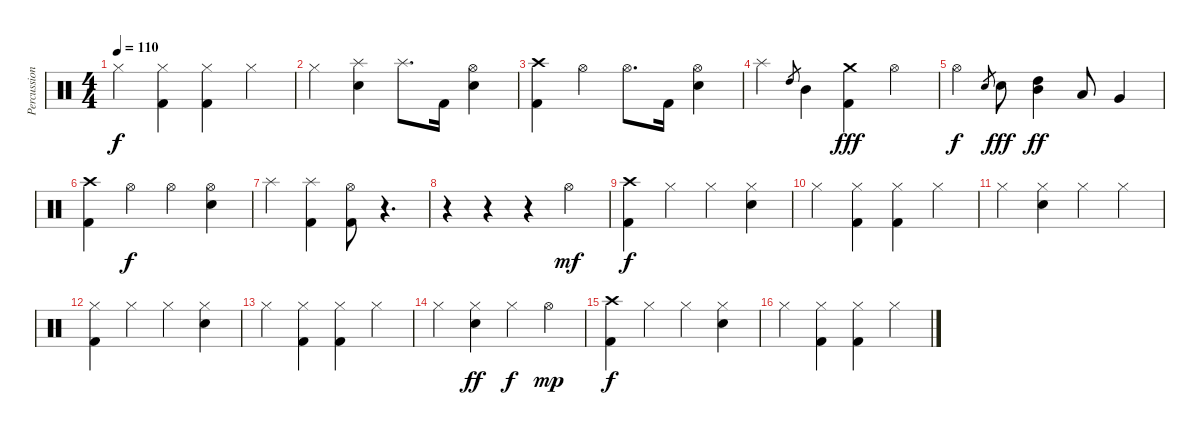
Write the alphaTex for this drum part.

\track ("Percussion" "Percussion") {instrument percussion}
\staff {score}
\articulation defaults
\ts (4 4)
\tempo 110
\clef neutral
\ks c "Hi-Hat (closed)".4{dy f}
("Hi-Hat (closed)" "Kick (hit) 2").4 ("Hi-Hat (closed)" "Kick (hit) 2").4 "Hi-Hat (closed)".4 |
"Hi-Hat (closed)".4 ("Splash (hit)" "Electric Snare (hit)").4 "Splash (hit)".8{d} "Kick (hit) 2".16 ("Hi-Hat (open)" "Electric Snare (hit)").4 |
("Crash high (hit)" "Kick (hit) 2").4 "Hi-Hat (open)".4 "Hi-Hat (open)".8{d} "Kick (hit) 2".16 ("Hi-Hat (open)" "Electric Snare (hit)").4 |
"Splash (hit)".4 "High Tom (hit)".8{gr} "Mid Tom (hit)".4 ("Crash medium (hit)" "Kick (hit) 2").4{dy fff} "Hi-Hat (open)".4 |
"Hi-Hat (open)".4{dy f} "Electric Snare (hit)".8{gr} "Electric Snare (hit)".8{dy fff} ("Mid Tom (hit)" "High Tom (hit)").4{dy ff} "Low Tom (hit)".8 "Very Low Tom (hit)".4 |
("Crash high (hit)" "Kick (hit) 2").4 "Hi-Hat (open)".4{dy f} "Hi-Hat (open)".4 ("Hi-Hat (open)" "Electric Snare (hit)").4 |
"Splash (hit)".4 ("Splash (hit)" "Kick (hit) 2").4 ("Hi-Hat (open)" "Kick (hit) 2").8 r.4{d} |
r.4 r.4 r.4 "Hi-Hat (open)".4{dy mf} |
("Crash high (hit)" "Kick (hit) 2").4{dy f} "Hi-Hat (closed)".4 "Hi-Hat (closed)".4 ("Hi-Hat (closed)" "Electric Snare (hit)").4 |
"Hi-Hat (closed)".4 ("Hi-Hat (closed)" "Kick (hit) 2").4 ("Hi-Hat (closed)" "Kick (hit) 2").4 "Hi-Hat (closed)".4 |
"Hi-Hat (closed)".4 ("Hi-Hat (closed)" "Electric Snare (hit)").4 "Hi-Hat (closed)".4 "Hi-Hat (closed)".4 |
("Hi-Hat (closed)" "Kick (hit) 2").4 "Hi-Hat (closed)".4 "Hi-Hat (closed)".4 ("Hi-Hat (closed)" "Electric Snare (hit)").4 |
"Hi-Hat (closed)".4 ("Hi-Hat (closed)" "Kick (hit) 2").4 ("Hi-Hat (closed)" "Kick (hit) 2").4 "Hi-Hat (closed)".4 |
"Hi-Hat (closed)".4 ("Hi-Hat (closed)" "Electric Snare (hit)").4{dy ff} "Hi-Hat (closed)".4{dy f} "Hi-Hat (open)".4{dy mp} |
("Crash high (hit)" "Kick (hit) 2").4{dy f} "Hi-Hat (closed)".4 "Hi-Hat (closed)".4 ("Hi-Hat (closed)" "Electric Snare (hit)").4 |
"Hi-Hat (closed)".4 ("Hi-Hat (closed)" "Kick (hit) 2").4 ("Hi-Hat (closed)" "Kick (hit) 2").4 "Hi-Hat (closed)".4
